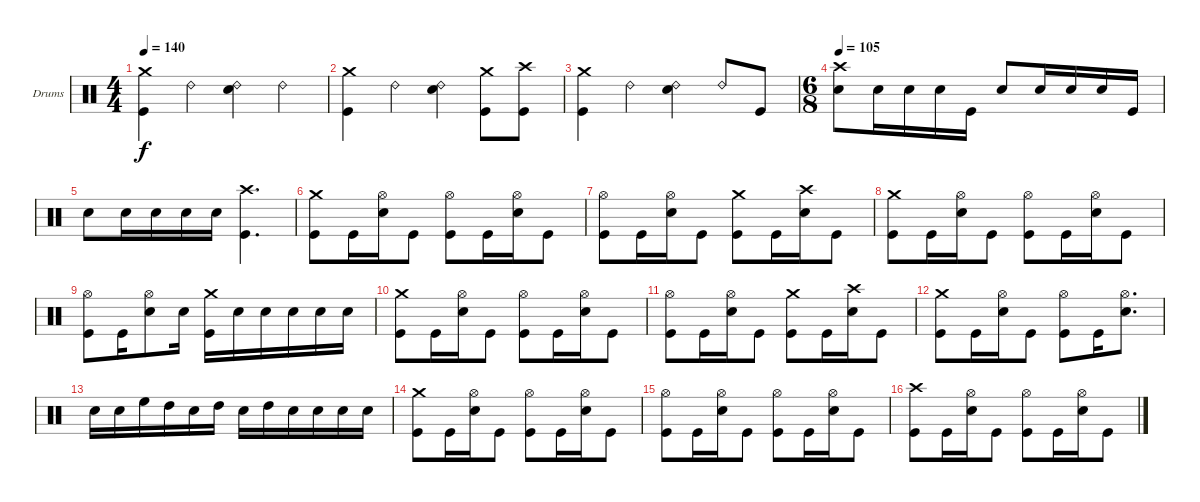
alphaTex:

\defaultSystemsLayout 4
\bracketExtendMode groupsimilarinstruments
\firstSystemTrackNameOrientation horizontal
\otherSystemsTrackNameOrientation horizontal
\track ("Stefan Schwarzmann" "Drums") {instrument percussion}
\staff {score}
\articulation defaults
\ts (4 4)
\tempo 140
\clef neutral
\ks c
("Crash medium (hit)" "Kick (hit)").4{dy f} "Ride (bell) 2".4 ("Ride (bell) 2" "Snare (hit) 2").4 "Ride (bell) 2".4 |
("Crash medium (hit)" "Kick (hit)").4 "Ride (bell) 2".4 ("Ride (bell) 2" "Snare (hit) 2").4 ("Crash medium (hit)" "Kick (hit)").8 ("Crash high (hit)" "Kick (hit)").8 |
("Crash medium (hit)" "Kick (hit)").4 "Ride (bell) 2".4 ("Ride (bell) 2" "Snare (hit) 2").4 "Ride (bell) 2".8 "Kick (hit)".8 |
\ts (6 8)
\tempo 105
("Crash high (hit)" "Snare (hit) 2").8 "Snare (hit) 2".16 "Snare (hit) 2".16 "Snare (hit) 2".16 "Kick (hit)".16 "Snare (hit) 2".8 "Snare (hit) 2".16 "Snare (hit) 2".16 "Snare (hit) 2".16 "Kick (hit)".16 |
"Snare (hit) 2".8 "Snare (hit) 2".16 "Snare (hit) 2".16 "Snare (hit) 2".16 "Snare (hit) 2".16 ("Crash high (hit)" "Kick (hit)").4{d} |
("Crash medium (hit)" "Kick (hit)").8 "Kick (hit)".16 ("Hi-Hat (open)" "Snare (hit) 2").16 "Kick (hit)".8 ("Hi-Hat (open)" "Kick (hit)").8 "Kick (hit)".16 ("Hi-Hat (open)" "Snare (hit) 2").16 "Kick (hit)".8 |
("Hi-Hat (open)" "Kick (hit)").8 "Kick (hit)".16 ("Hi-Hat (open)" "Snare (hit) 2").16 "Kick (hit)".8 ("Crash medium (hit)" "Kick (hit)").8 "Kick (hit)".16 ("Crash high (hit)" "Snare (hit) 2").16 "Kick (hit)".8 |
("Crash medium (hit)" "Kick (hit)").8 "Kick (hit)".16 ("Hi-Hat (open)" "Snare (hit) 2").16 "Kick (hit)".8 ("Hi-Hat (open)" "Kick (hit)").8 "Kick (hit)".16 ("Hi-Hat (open)" "Snare (hit) 2").16 "Kick (hit)".8 |
("Hi-Hat (open)" "Kick (hit)").8 "Kick (hit)".16 ("Hi-Hat (open)" "Snare (hit) 2").8 "Snare (hit) 2".16 ("Crash medium (hit)" "Kick (hit)").16 "Snare (hit) 2".16 "Snare (hit) 2".16 "Snare (hit) 2".16 "Snare (hit) 2".16 "Snare (hit) 2".16 |
("Crash medium (hit)" "Kick (hit)").8 "Kick (hit)".16 ("Hi-Hat (open)" "Snare (hit) 2").16 "Kick (hit)".8 ("Hi-Hat (open)" "Kick (hit)").8 "Kick (hit)".16 ("Hi-Hat (open)" "Snare (hit) 2").16 "Kick (hit)".8 |
("Hi-Hat (open)" "Kick (hit)").8 "Kick (hit)".16 ("Hi-Hat (open)" "Snare (hit) 2").16 "Kick (hit)".8 ("Crash medium (hit)" "Kick (hit)").8 "Kick (hit)".16 ("Crash high (hit)" "Snare (hit) 2").16 "Kick (hit)".8 |
("Crash medium (hit)" "Kick (hit)").8 "Kick (hit)".16 ("Hi-Hat (open)" "Snare (hit) 2").16 "Kick (hit)".8 ("Hi-Hat (open)" "Kick (hit)").8 "Kick (hit)".16 ("Hi-Hat (open)" "Snare (hit) 2").8{d} |
"Snare (hit) 2".16 "Snare (hit) 2".16 "High Floor Tom (hit)".16 "High Tom (hit)".16 "Snare (hit) 2".16 "High Tom (hit)".16 "Snare (hit) 2".16 "High Tom (hit)".16 "Snare (hit) 2".16 "Snare (hit) 2".16 "Snare (hit) 2".16 "Snare (hit) 2".16 |
("Crash medium (hit)" "Kick (hit)").8 "Kick (hit)".16 ("Hi-Hat (open)" "Snare (hit) 2").16 "Kick (hit)".8 ("Hi-Hat (open)" "Kick (hit)").8 "Kick (hit)".16 ("Hi-Hat (open)" "Snare (hit) 2").16 "Kick (hit)".8 |
("Hi-Hat (open)" "Kick (hit)").8 "Kick (hit)".16 ("Hi-Hat (open)" "Snare (hit) 2").16 "Kick (hit)".8 ("Hi-Hat (open)" "Kick (hit)").8 "Kick (hit)".16 ("Hi-Hat (open)" "Snare (hit) 2").16 "Kick (hit)".8 |
("Crash high (hit)" "Kick (hit)").8 "Kick (hit)".16 ("Hi-Hat (open)" "Snare (hit) 2").16 "Kick (hit)".8 ("Hi-Hat (open)" "Kick (hit)").8 "Kick (hit)".16 ("Hi-Hat (open)" "Snare (hit) 2").16 "Kick (hit)".8
